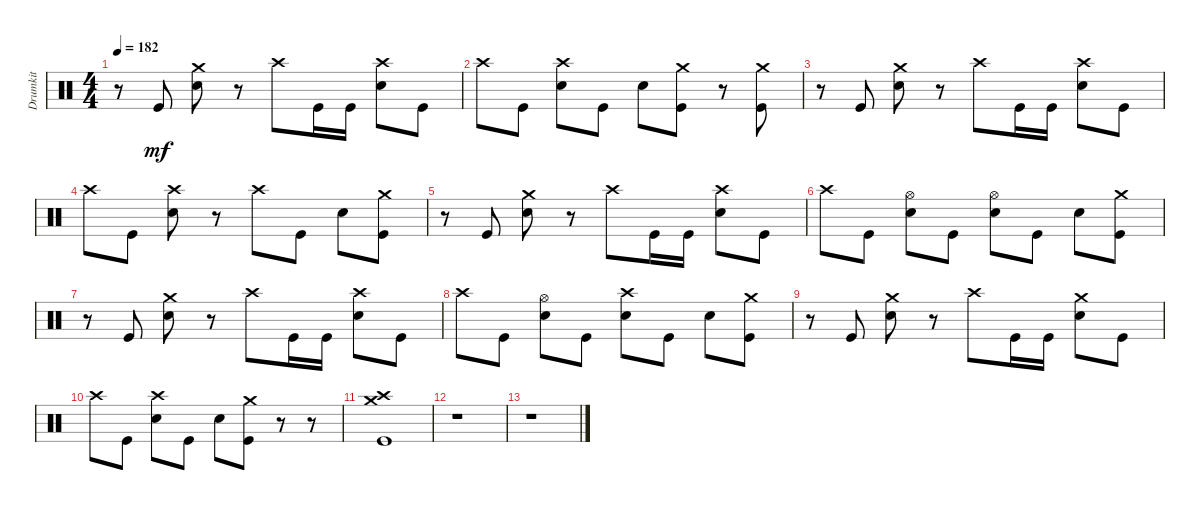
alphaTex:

\track ("Drumkit" "Drumkit") {instrument percussion}
\staff {score}
\articulation defaults
\ts (4 4)
\tempo 182
\clef neutral
\ks c
r.8{dy mf} "Kick (hit)".8 ("Snare (hit) 2" "Crash medium (hit)").8 r.8 "Crash high (hit)".8 "Kick (hit)".16 "Kick (hit)".16 ("Snare (hit) 2" "Crash high (hit)").8 "Kick (hit)".8 |
"Crash high (hit)".8 "Kick (hit)".8 ("Snare (hit) 2" "Crash high (hit)").8 "Kick (hit)".8 "Snare (hit) 2".8 ("Kick (hit)" "Crash medium (hit)").8 r.8 ("Kick (hit)" "Crash medium (hit)").8 |
r.8 "Kick (hit)".8 ("Snare (hit) 2" "Crash medium (hit)").8 r.8 "Crash high (hit)".8 "Kick (hit)".16 "Kick (hit)".16 ("Snare (hit) 2" "Crash high (hit)").8 "Kick (hit)".8 |
"Crash high (hit)".8 "Kick (hit)".8 ("Snare (hit) 2" "Crash high (hit)").8 r.8 "Crash high (hit)".8 "Kick (hit)".8 "Snare (hit) 2".8 ("Kick (hit)" "Crash medium (hit)").8 |
r.8 "Kick (hit)".8 ("Snare (hit) 2" "Crash medium (hit)").8 r.8 "Crash high (hit)".8 "Kick (hit)".16 "Kick (hit)".16 ("Snare (hit) 2" "Crash high (hit)").8 "Kick (hit)".8 |
"Crash high (hit)".8 "Kick (hit)".8 ("Snare (hit) 2" "Hi-Hat (open)").8 "Kick (hit)".8 ("Snare (hit) 2" "Hi-Hat (open)").8 "Kick (hit)".8 "Snare (hit) 2".8 ("Kick (hit)" "Crash medium (hit)").8 |
r.8 "Kick (hit)".8 ("Snare (hit) 2" "Crash medium (hit)").8 r.8 "Crash high (hit)".8 "Kick (hit)".16 "Kick (hit)".16 ("Snare (hit) 2" "Crash high (hit)").8 "Kick (hit)".8 |
"Crash high (hit)".8 "Kick (hit)".8 ("Snare (hit) 2" "Hi-Hat (open)").8 "Kick (hit)".8 ("Crash high (hit)" "Snare (hit) 2").8 "Kick (hit)".8 "Snare (hit) 2".8 ("Kick (hit)" "Crash medium (hit)").8 |
r.8 "Kick (hit)".8 ("Snare (hit) 2" "Crash medium (hit)").8 r.8 "Crash high (hit)".8 "Kick (hit)".16 "Kick (hit)".16 ("Snare (hit) 2" "Crash medium (hit)").8 "Kick (hit)".8 |
"Crash high (hit)".8 "Kick (hit)".8 ("Snare (hit) 2" "Crash high (hit)").8 "Kick (hit)".8 "Snare (hit) 2".8 ("Kick (hit)" "Crash medium (hit)").8 r.8 r.8 |
("Kick (hit)" "Crash medium (hit)" "Crash high (hit)").1 |
r.1 |
r.1
